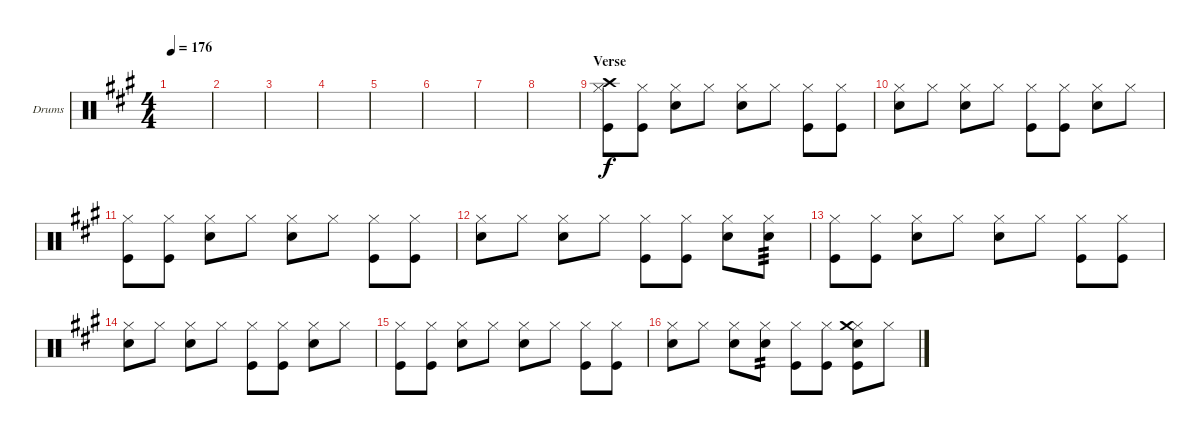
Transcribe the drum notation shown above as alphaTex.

\defaultSystemsLayout 4
\bracketExtendMode groupsimilarinstruments
\firstSystemTrackNameOrientation horizontal
\otherSystemsTrackNameOrientation horizontal
\track ("Drumkit" "Drums") {instrument percussion}
\staff {score}
\articulation defaults
\ts (4 4)
\tempo 176
\clef neutral
\scale
0.529412
\ks a
|
\scale
0.235294 |
\scale
0.235294 |
\scale
0.333333 |
\scale
0.333333 |
\scale
0.333333 |
\scale
0.333333 |
\scale
0.333333 |
\section ("" "Verse")
\scale
0.333333 ("Hi-Hat (closed)" "Crash high (hit)" "Kick (hit)").8 ("Hi-Hat (closed)" "Kick (hit)").8 ("Hi-Hat (closed)" "Snare (hit) 2").8 "Hi-Hat (closed)".8 ("Hi-Hat (closed)" "Snare (hit) 2").8 "Hi-Hat (closed)".8 ("Hi-Hat (closed)" "Kick (hit)").8 ("Hi-Hat (closed)" "Kick (hit)").8 |
\scale
0.333333 ("Hi-Hat (closed)" "Snare (hit) 2").8 "Hi-Hat (closed)".8 ("Hi-Hat (closed)" "Snare (hit) 2").8 "Hi-Hat (closed)".8 ("Hi-Hat (closed)" "Kick (hit)").8 ("Hi-Hat (closed)" "Kick (hit)").8 ("Hi-Hat (closed)" "Snare (hit) 2").8 "Hi-Hat (closed)".8 |
\scale
0.333333 ("Hi-Hat (closed)" "Kick (hit)").8 ("Hi-Hat (closed)" "Kick (hit)").8 ("Hi-Hat (closed)" "Snare (hit) 2").8 "Hi-Hat (closed)".8 ("Hi-Hat (closed)" "Snare (hit) 2").8 "Hi-Hat (closed)".8 ("Hi-Hat (closed)" "Kick (hit)").8 ("Hi-Hat (closed)" "Kick (hit)").8 |
\scale
0.333333 ("Hi-Hat (closed)" "Snare (hit) 2").8 "Hi-Hat (closed)".8 ("Hi-Hat (closed)" "Snare (hit) 2").8 "Hi-Hat (closed)".8 ("Hi-Hat (closed)" "Kick (hit)").8 ("Hi-Hat (closed)" "Kick (hit)").8 ("Hi-Hat (closed)" "Snare (hit) 2").8 ("Hi-Hat (closed)" "Snare (hit) 2").8{tp 3} |
\scale
0.333333 ("Hi-Hat (closed)" "Kick (hit)").8 ("Hi-Hat (closed)" "Kick (hit)").8 ("Hi-Hat (closed)" "Snare (hit) 2").8 "Hi-Hat (closed)".8 ("Hi-Hat (closed)" "Snare (hit) 2").8 "Hi-Hat (closed)".8 ("Hi-Hat (closed)" "Kick (hit)").8 ("Hi-Hat (closed)" "Kick (hit)").8 |
\scale
0.333333 ("Hi-Hat (closed)" "Snare (hit) 2").8 "Hi-Hat (closed)".8 ("Hi-Hat (closed)" "Snare (hit) 2").8 "Hi-Hat (closed)".8 ("Hi-Hat (closed)" "Kick (hit)").8 ("Hi-Hat (closed)" "Kick (hit)").8 ("Hi-Hat (closed)" "Snare (hit) 2").8 "Hi-Hat (closed)".8 |
\scale
0.333333 ("Hi-Hat (closed)" "Kick (hit)").8 ("Hi-Hat (closed)" "Kick (hit)").8 ("Hi-Hat (closed)" "Snare (hit) 2").8 "Hi-Hat (closed)".8 ("Hi-Hat (closed)" "Snare (hit) 2").8 "Hi-Hat (closed)".8 ("Hi-Hat (closed)" "Kick (hit)").8 ("Hi-Hat (closed)" "Kick (hit)").8 |
\scale
0.333333 ("Hi-Hat (closed)" "Snare (hit) 2").8 "Hi-Hat (closed)".8 ("Hi-Hat (closed)" "Snare (hit) 2").8 ("Hi-Hat (closed)" "Snare (hit) 2").8{tp 2} ("Hi-Hat (closed)" "Kick (hit)").8 ("Hi-Hat (closed)" "Kick (hit)").8 ("Hi-Hat (closed)" "Crash medium (hit)" "Snare (hit) 2" "Kick (hit)").8 "Hi-Hat (closed)".8
